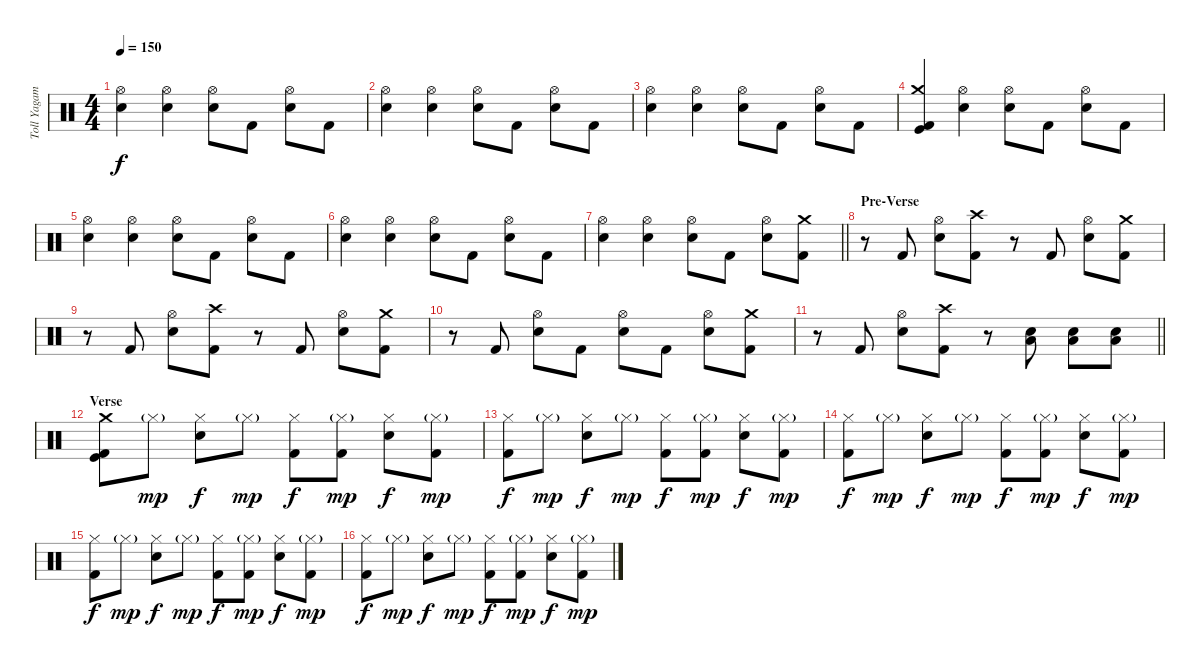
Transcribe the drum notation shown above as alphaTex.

\track ("Toll Yagami" "Toll Yagam") {instrument percussion}
\staff {score}
\articulation defaults
\ts (4 4)
\tempo 150
\clef neutral
\ks c
("Hi-Hat (open)" "Electric Snare (hit)").4{dy f} ("Hi-Hat (open)" "Electric Snare (hit)").4 ("Hi-Hat (open)" "Electric Snare (hit)").8 "Kick (hit) 2".8 ("Hi-Hat (open)" "Electric Snare (hit)").8 "Kick (hit) 2".8 |
("Hi-Hat (open)" "Electric Snare (hit)").4 ("Hi-Hat (open)" "Electric Snare (hit)").4 ("Hi-Hat (open)" "Electric Snare (hit)").8 "Kick (hit) 2".8 ("Hi-Hat (open)" "Electric Snare (hit)").8 "Kick (hit) 2".8 |
("Hi-Hat (open)" "Electric Snare (hit)").4 ("Hi-Hat (open)" "Electric Snare (hit)").4 ("Hi-Hat (open)" "Electric Snare (hit)").8 "Kick (hit) 2".8 ("Hi-Hat (open)" "Electric Snare (hit)").8 "Kick (hit) 2".8 |
("Crash medium (hit)" "Kick (hit) 2" "Kick (hit)").4 ("Hi-Hat (open)" "Electric Snare (hit)").4 ("Hi-Hat (open)" "Electric Snare (hit)").8 "Kick (hit) 2".8 ("Hi-Hat (open)" "Electric Snare (hit)").8 "Kick (hit) 2".8 |
("Hi-Hat (open)" "Electric Snare (hit)").4 ("Hi-Hat (open)" "Electric Snare (hit)").4 ("Hi-Hat (open)" "Electric Snare (hit)").8 "Kick (hit) 2".8 ("Hi-Hat (open)" "Electric Snare (hit)").8 "Kick (hit) 2".8 |
("Hi-Hat (open)" "Electric Snare (hit)").4 ("Hi-Hat (open)" "Electric Snare (hit)").4 ("Hi-Hat (open)" "Electric Snare (hit)").8 "Kick (hit) 2".8 ("Hi-Hat (open)" "Electric Snare (hit)").8 "Kick (hit) 2".8 |
\barLineRight lightlight
("Hi-Hat (open)" "Electric Snare (hit)").4 ("Hi-Hat (open)" "Electric Snare (hit)").4 ("Hi-Hat (open)" "Electric Snare (hit)").8 "Kick (hit) 2".8 ("Hi-Hat (open)" "Electric Snare (hit)").8 ("Crash medium (hit)" "Kick (hit) 2").8 |
\section ("" "Pre-Verse")
r.8 "Kick (hit) 2".8 ("Hi-Hat (open)" "Electric Snare (hit)").8 ("Crash high (hit)" "Kick (hit) 2").8 r.8 "Kick (hit) 2".8 ("Hi-Hat (open)" "Electric Snare (hit)").8 ("Crash medium (hit)" "Kick (hit) 2").8 |
r.8 "Kick (hit) 2".8 ("Hi-Hat (open)" "Electric Snare (hit)").8 ("Crash high (hit)" "Kick (hit) 2").8 r.8 "Kick (hit) 2".8 ("Hi-Hat (open)" "Electric Snare (hit)").8 ("Crash medium (hit)" "Kick (hit) 2").8 |
r.8 "Kick (hit) 2".8 ("Hi-Hat (open)" "Electric Snare (hit)").8 "Kick (hit) 2".8 ("Hi-Hat (open)" "Electric Snare (hit)").8 "Kick (hit) 2".8 ("Hi-Hat (open)" "Electric Snare (hit)").8 ("Crash medium (hit)" "Kick (hit) 2").8 |
\barLineRight lightlight
r.8 "Kick (hit) 2".8 ("Hi-Hat (open)" "Electric Snare (hit)").8 ("Crash high (hit)" "Kick (hit) 2").8 r.8 ("Low Floor Tom (hit)" "Electric Snare (hit)").8 ("Low Floor Tom (hit)" "Electric Snare (hit)").8 ("Low Floor Tom (hit)" "Electric Snare (hit)").8 |
\section ("" "Verse")
("Crash medium (hit)" "Kick (hit) 2" "Kick (hit)").8 "Hi-Hat (closed)"{g}.8{dy mp} ("Hi-Hat (closed)" "Electric Snare (hit)").8{dy f} "Hi-Hat (closed)"{g}.8{dy mp} ("Hi-Hat (closed)" "Kick (hit) 2").8{dy f} ("Hi-Hat (closed)"{g} "Kick (hit) 2").8{dy mp} ("Hi-Hat (closed)" "Electric Snare (hit)").8{dy f} ("Hi-Hat (closed)"{g} "Kick (hit) 2").8{dy mp} |
("Hi-Hat (closed)" "Kick (hit) 2").8{dy f} "Hi-Hat (closed)"{g}.8{dy mp} ("Hi-Hat (closed)" "Electric Snare (hit)").8{dy f} "Hi-Hat (closed)"{g}.8{dy mp} ("Hi-Hat (closed)" "Kick (hit) 2").8{dy f} ("Hi-Hat (closed)"{g} "Kick (hit) 2").8{dy mp} ("Hi-Hat (closed)" "Electric Snare (hit)").8{dy f} ("Hi-Hat (closed)"{g} "Kick (hit) 2").8{dy mp} |
("Hi-Hat (closed)" "Kick (hit) 2").8{dy f} "Hi-Hat (closed)"{g}.8{dy mp} ("Hi-Hat (closed)" "Electric Snare (hit)").8{dy f} "Hi-Hat (closed)"{g}.8{dy mp} ("Hi-Hat (closed)" "Kick (hit) 2").8{dy f} ("Hi-Hat (closed)"{g} "Kick (hit) 2").8{dy mp} ("Hi-Hat (closed)" "Electric Snare (hit)").8{dy f} ("Hi-Hat (closed)"{g} "Kick (hit) 2").8{dy mp} |
("Hi-Hat (closed)" "Kick (hit) 2").8{dy f} "Hi-Hat (closed)"{g}.8{dy mp} ("Hi-Hat (closed)" "Electric Snare (hit)").8{dy f} "Hi-Hat (closed)"{g}.8{dy mp} ("Hi-Hat (closed)" "Kick (hit) 2").8{dy f} ("Hi-Hat (closed)"{g} "Kick (hit) 2").8{dy mp} ("Hi-Hat (closed)" "Electric Snare (hit)").8{dy f} ("Hi-Hat (closed)"{g} "Kick (hit) 2").8{dy mp} |
("Hi-Hat (closed)" "Kick (hit) 2").8{dy f} "Hi-Hat (closed)"{g}.8{dy mp} ("Hi-Hat (closed)" "Electric Snare (hit)").8{dy f} "Hi-Hat (closed)"{g}.8{dy mp} ("Hi-Hat (closed)" "Kick (hit) 2").8{dy f} ("Hi-Hat (closed)"{g} "Kick (hit) 2").8{dy mp} ("Hi-Hat (closed)" "Electric Snare (hit)").8{dy f} ("Hi-Hat (closed)"{g} "Kick (hit) 2").8{dy mp}
